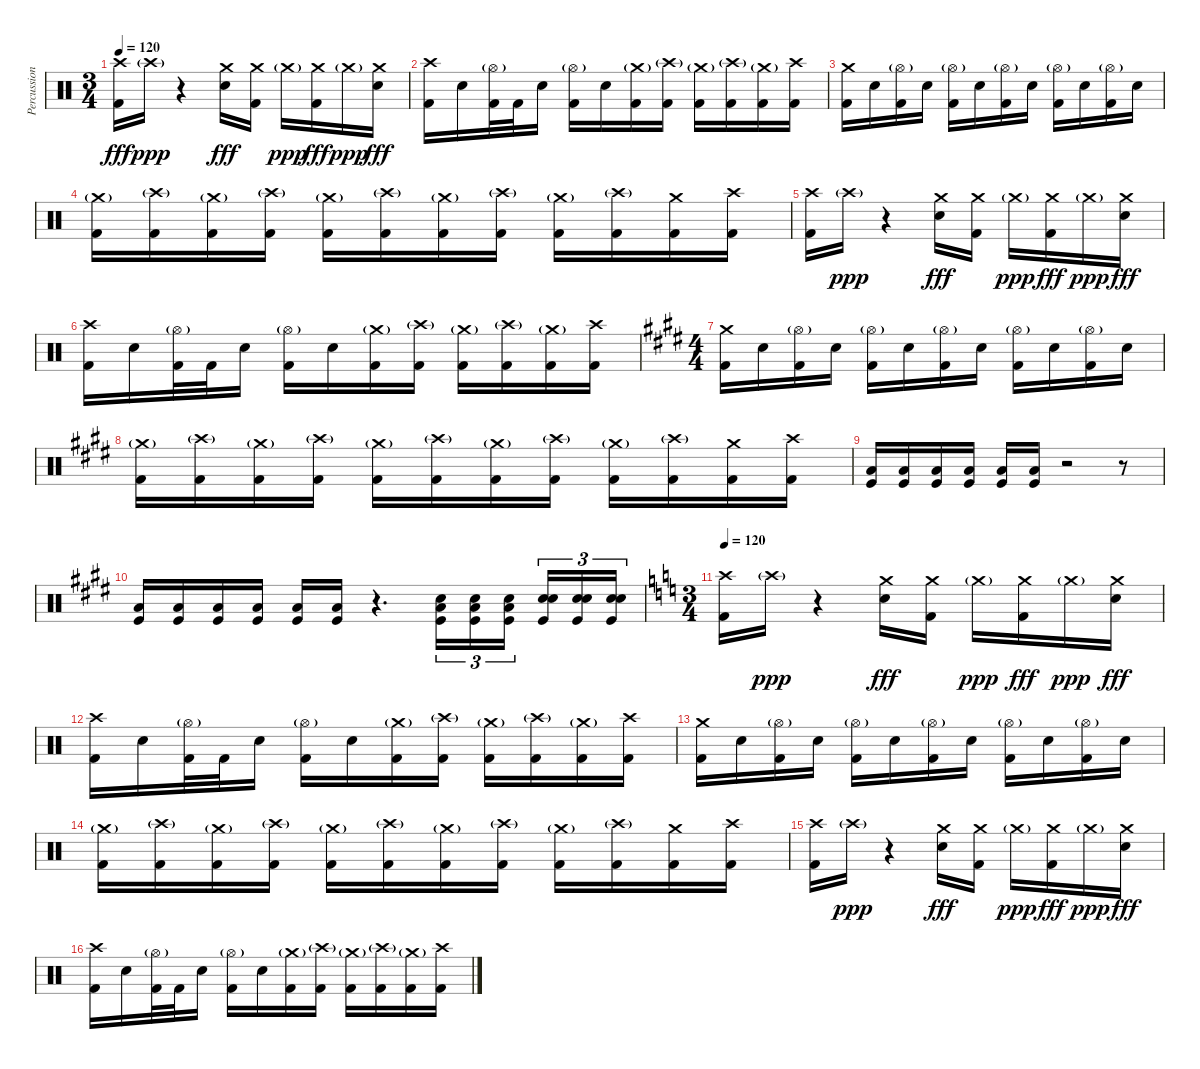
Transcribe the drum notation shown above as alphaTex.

\track ("Percussion" "Percussion") {instrument percussion}
\staff {score}
\articulation defaults
\ts (3 4)
\tempo 120
\clef neutral
\ks c
("Crash high (hit)" "Kick (hit) 2").16{dy fff} "Crash high (hit)"{g}.16{dy ppp} r.4 ("Crash medium (hit)" "Electric Snare (hit)").16{dy fff} ("Crash medium (hit)" "Kick (hit) 2").16 "Crash medium (hit)"{g}.16{dy ppp} ("Crash medium (hit)" "Kick (hit) 2").16{dy fff} "Crash medium (hit)"{g}.16{dy ppp} ("Crash medium (hit)" "Electric Snare (hit)").16{dy fff} |
("Crash high (hit)" "Kick (hit) 2").16 "Electric Snare (hit)".16 ("Hi-Hat (open)"{g} "Kick (hit) 2").32 "Kick (hit) 2".32 "Electric Snare (hit)".16 ("Hi-Hat (open)"{g} "Kick (hit) 2").16 "Electric Snare (hit)".16 ("Crash medium (hit)"{g} "Kick (hit) 2").16 ("Crash high (hit)"{g} "Kick (hit) 2").16 ("Crash medium (hit)"{g} "Kick (hit) 2").16 ("Crash high (hit)"{g} "Kick (hit) 2").16 ("Crash medium (hit)"{g} "Kick (hit) 2").16 ("Crash high (hit)" "Kick (hit) 2").16 |
("Crash medium (hit)" "Kick (hit) 2").16 "Electric Snare (hit)".16 ("Hi-Hat (open)"{g} "Kick (hit) 2").16 "Electric Snare (hit)".16 ("Hi-Hat (open)"{g} "Kick (hit) 2").16 "Electric Snare (hit)".16 ("Hi-Hat (open)"{g} "Kick (hit) 2").16 "Electric Snare (hit)".16 ("Hi-Hat (open)"{g} "Kick (hit) 2").16 "Electric Snare (hit)".16 ("Hi-Hat (open)"{g} "Kick (hit) 2").16 "Electric Snare (hit)".16 |
("Crash medium (hit)"{g} "Kick (hit) 2").16 ("Crash high (hit)"{g} "Kick (hit) 2").16 ("Crash medium (hit)"{g} "Kick (hit) 2").16 ("Crash high (hit)"{g} "Kick (hit) 2").16 ("Crash medium (hit)"{g} "Kick (hit) 2").16 ("Crash high (hit)"{g} "Kick (hit) 2").16 ("Crash medium (hit)"{g} "Kick (hit) 2").16 ("Crash high (hit)"{g} "Kick (hit) 2").16 ("Crash medium (hit)"{g} "Kick (hit) 2").16 ("Crash high (hit)"{g} "Kick (hit) 2").16 ("Crash medium (hit)" "Kick (hit) 2").16 ("Crash high (hit)" "Kick (hit) 2").16 |
("Crash high (hit)" "Kick (hit) 2").16 "Crash high (hit)"{g}.16{dy ppp} r.4 ("Crash medium (hit)" "Electric Snare (hit)").16{dy fff} ("Crash medium (hit)" "Kick (hit) 2").16 "Crash medium (hit)"{g}.16{dy ppp} ("Crash medium (hit)" "Kick (hit) 2").16{dy fff} "Crash medium (hit)"{g}.16{dy ppp} ("Crash medium (hit)" "Electric Snare (hit)").16{dy fff} |
("Crash high (hit)" "Kick (hit) 2").16 "Electric Snare (hit)".16 ("Hi-Hat (open)"{g} "Kick (hit) 2").32 "Kick (hit) 2".32 "Electric Snare (hit)".16 ("Hi-Hat (open)"{g} "Kick (hit) 2").16 "Electric Snare (hit)".16 ("Crash medium (hit)"{g} "Kick (hit) 2").16 ("Crash high (hit)"{g} "Kick (hit) 2").16 ("Crash medium (hit)"{g} "Kick (hit) 2").16 ("Crash high (hit)"{g} "Kick (hit) 2").16 ("Crash medium (hit)"{g} "Kick (hit) 2").16 ("Crash high (hit)" "Kick (hit) 2").16 |
\ts (4 4)
\ks e
("Crash medium (hit)" "Kick (hit) 2").16 "Electric Snare (hit)".16 ("Hi-Hat (open)"{g} "Kick (hit) 2").16 "Electric Snare (hit)".16 ("Hi-Hat (open)"{g} "Kick (hit) 2").16 "Electric Snare (hit)".16 ("Hi-Hat (open)"{g} "Kick (hit) 2").16 "Electric Snare (hit)".16 ("Hi-Hat (open)"{g} "Kick (hit) 2").16 "Electric Snare (hit)".16 ("Hi-Hat (open)"{g} "Kick (hit) 2").16 "Electric Snare (hit)".16 |
("Crash medium (hit)"{g} "Kick (hit) 2").16 ("Crash high (hit)"{g} "Kick (hit) 2").16 ("Crash medium (hit)"{g} "Kick (hit) 2").16 ("Crash high (hit)"{g} "Kick (hit) 2").16 ("Crash medium (hit)"{g} "Kick (hit) 2").16 ("Crash high (hit)"{g} "Kick (hit) 2").16 ("Crash medium (hit)"{g} "Kick (hit) 2").16 ("Crash high (hit)"{g} "Kick (hit) 2").16 ("Crash medium (hit)"{g} "Kick (hit) 2").16 ("Crash high (hit)"{g} "Kick (hit) 2").16 ("Crash medium (hit)" "Kick (hit) 2").16 ("Crash high (hit)" "Kick (hit) 2").16 |
("Kick (hit)" "Low Floor Tom (hit)").16 ("Kick (hit)" "Low Floor Tom (hit)").16 ("Kick (hit)" "Low Floor Tom (hit)").16 ("Kick (hit)" "Low Floor Tom (hit)").16 ("Kick (hit)" "Low Floor Tom (hit)").16 ("Kick (hit)" "Low Floor Tom (hit)").16 r.2 r.8 |
("Kick (hit)" "Low Floor Tom (hit)").16 ("Kick (hit)" "Low Floor Tom (hit)").16 ("Kick (hit)" "Low Floor Tom (hit)").16 ("Kick (hit)" "Low Floor Tom (hit)").16 ("Kick (hit)" "Low Floor Tom (hit)").16 ("Kick (hit)" "Low Floor Tom (hit)").16 r.4{d} ("Kick (hit)" "Low Floor Tom (hit)" "Electric Snare (hit)").16{tu (3 2)} ("Kick (hit)" "Low Floor Tom (hit)" "Electric Snare (hit)").16{tu (3 2)} ("Kick (hit)" "Low Floor Tom (hit)" "Electric Snare (hit)").16{tu (3 2) beam splitsecondary} ("Electric Snare (hit)" "Electric Snare (hit)" "Kick (hit)").16{tu (3 2)} ("Electric Snare (hit)" "Electric Snare (hit)" "Kick (hit)").16{tu (3 2)} ("Electric Snare (hit)" "Electric Snare (hit)" "Kick (hit)").16{tu (3 2)} |
\ts (3 4)
\tempo 120
\ks c
("Crash high (hit)" "Kick (hit) 2").16 "Crash high (hit)"{g}.16{dy ppp} r.4 ("Crash medium (hit)" "Electric Snare (hit)").16{dy fff} ("Crash medium (hit)" "Kick (hit) 2").16 "Crash medium (hit)"{g}.16{dy ppp} ("Crash medium (hit)" "Kick (hit) 2").16{dy fff} "Crash medium (hit)"{g}.16{dy ppp} ("Crash medium (hit)" "Electric Snare (hit)").16{dy fff} |
("Crash high (hit)" "Kick (hit) 2").16 "Electric Snare (hit)".16 ("Hi-Hat (open)"{g} "Kick (hit) 2").32 "Kick (hit) 2".32 "Electric Snare (hit)".16 ("Hi-Hat (open)"{g} "Kick (hit) 2").16 "Electric Snare (hit)".16 ("Crash medium (hit)"{g} "Kick (hit) 2").16 ("Crash high (hit)"{g} "Kick (hit) 2").16 ("Crash medium (hit)"{g} "Kick (hit) 2").16 ("Crash high (hit)"{g} "Kick (hit) 2").16 ("Crash medium (hit)"{g} "Kick (hit) 2").16 ("Crash high (hit)" "Kick (hit) 2").16 |
("Crash medium (hit)" "Kick (hit) 2").16 "Electric Snare (hit)".16 ("Hi-Hat (open)"{g} "Kick (hit) 2").16 "Electric Snare (hit)".16 ("Hi-Hat (open)"{g} "Kick (hit) 2").16 "Electric Snare (hit)".16 ("Hi-Hat (open)"{g} "Kick (hit) 2").16 "Electric Snare (hit)".16 ("Hi-Hat (open)"{g} "Kick (hit) 2").16 "Electric Snare (hit)".16 ("Hi-Hat (open)"{g} "Kick (hit) 2").16 "Electric Snare (hit)".16 |
("Crash medium (hit)"{g} "Kick (hit) 2").16 ("Crash high (hit)"{g} "Kick (hit) 2").16 ("Crash medium (hit)"{g} "Kick (hit) 2").16 ("Crash high (hit)"{g} "Kick (hit) 2").16 ("Crash medium (hit)"{g} "Kick (hit) 2").16 ("Crash high (hit)"{g} "Kick (hit) 2").16 ("Crash medium (hit)"{g} "Kick (hit) 2").16 ("Crash high (hit)"{g} "Kick (hit) 2").16 ("Crash medium (hit)"{g} "Kick (hit) 2").16 ("Crash high (hit)"{g} "Kick (hit) 2").16 ("Crash medium (hit)" "Kick (hit) 2").16 ("Crash high (hit)" "Kick (hit) 2").16 |
("Crash high (hit)" "Kick (hit) 2").16 "Crash high (hit)"{g}.16{dy ppp} r.4 ("Crash medium (hit)" "Electric Snare (hit)").16{dy fff} ("Crash medium (hit)" "Kick (hit) 2").16 "Crash medium (hit)"{g}.16{dy ppp} ("Crash medium (hit)" "Kick (hit) 2").16{dy fff} "Crash medium (hit)"{g}.16{dy ppp} ("Crash medium (hit)" "Electric Snare (hit)").16{dy fff} |
("Crash high (hit)" "Kick (hit) 2").16 "Electric Snare (hit)".16 ("Hi-Hat (open)"{g} "Kick (hit) 2").32 "Kick (hit) 2".32 "Electric Snare (hit)".16 ("Hi-Hat (open)"{g} "Kick (hit) 2").16 "Electric Snare (hit)".16 ("Crash medium (hit)"{g} "Kick (hit) 2").16 ("Crash high (hit)"{g} "Kick (hit) 2").16 ("Crash medium (hit)"{g} "Kick (hit) 2").16 ("Crash high (hit)"{g} "Kick (hit) 2").16 ("Crash medium (hit)"{g} "Kick (hit) 2").16 ("Crash high (hit)" "Kick (hit) 2").16
